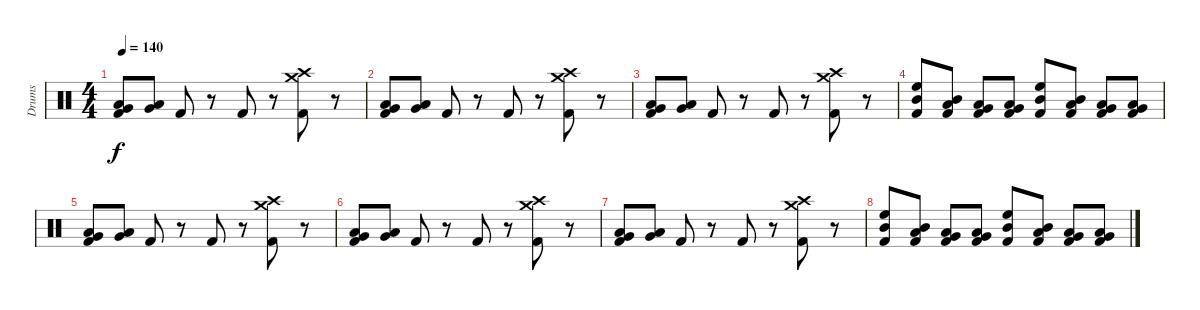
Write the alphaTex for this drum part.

\track ("Drums" "Drums") {instrument percussion}
\staff {score}
\articulation defaults
\ts (4 4)
\tempo 140
\clef neutral
\ks c
("Low Floor Tom (hit)" "Very Low Tom (hit)" "Kick (hit) 2").8{dy f} ("Low Floor Tom (hit)" "Very Low Tom (hit)").8 "Kick (hit) 2".8 r.8 "Kick (hit) 2".8 r.8 ("Crash high (hit)" "Crash medium (hit)" "Kick (hit) 2").8 r.8 |
("Low Floor Tom (hit)" "Very Low Tom (hit)" "Kick (hit) 2").8 ("Low Floor Tom (hit)" "Very Low Tom (hit)").8 "Kick (hit) 2".8 r.8 "Kick (hit) 2".8 r.8 ("Crash high (hit)" "Crash medium (hit)" "Kick (hit) 2").8 r.8 |
("Low Floor Tom (hit)" "Very Low Tom (hit)" "Kick (hit) 2").8 ("Low Floor Tom (hit)" "Very Low Tom (hit)").8 "Kick (hit) 2".8 r.8 "Kick (hit) 2".8 r.8 ("Crash high (hit)" "Crash medium (hit)" "Kick (hit) 2").8 r.8 |
("High Floor Tom (hit)" "Mid Tom (hit)" "Kick (hit) 2").8 ("Mid Tom (hit)" "Low Tom (hit)" "Kick (hit) 2").8 ("Low Tom (hit)" "Very Low Tom (hit)" "Kick (hit) 2").8 ("Very Low Tom (hit)" "Low Floor Tom (hit)" "Kick (hit) 2").8 ("High Floor Tom (hit)" "Mid Tom (hit)" "Kick (hit) 2").8 ("Mid Tom (hit)" "Low Tom (hit)" "Kick (hit) 2").8 ("Low Tom (hit)" "Very Low Tom (hit)" "Kick (hit) 2").8 ("Very Low Tom (hit)" "Low Floor Tom (hit)" "Kick (hit) 2").8 |
("Low Floor Tom (hit)" "Very Low Tom (hit)" "Kick (hit) 2").8 ("Low Floor Tom (hit)" "Very Low Tom (hit)").8 "Kick (hit) 2".8 r.8 "Kick (hit) 2".8 r.8 ("Crash high (hit)" "Crash medium (hit)" "Kick (hit) 2").8 r.8 |
("Low Floor Tom (hit)" "Very Low Tom (hit)" "Kick (hit) 2").8 ("Low Floor Tom (hit)" "Very Low Tom (hit)").8 "Kick (hit) 2".8 r.8 "Kick (hit) 2".8 r.8 ("Crash high (hit)" "Crash medium (hit)" "Kick (hit) 2").8 r.8 |
("Low Floor Tom (hit)" "Very Low Tom (hit)" "Kick (hit) 2").8 ("Low Floor Tom (hit)" "Very Low Tom (hit)").8 "Kick (hit) 2".8 r.8 "Kick (hit) 2".8 r.8 ("Crash high (hit)" "Crash medium (hit)" "Kick (hit) 2").8 r.8 |
("High Floor Tom (hit)" "Mid Tom (hit)" "Kick (hit) 2").8 ("Mid Tom (hit)" "Low Tom (hit)" "Kick (hit) 2").8 ("Low Tom (hit)" "Very Low Tom (hit)" "Kick (hit) 2").8 ("Very Low Tom (hit)" "Low Floor Tom (hit)" "Kick (hit) 2").8 ("High Floor Tom (hit)" "Mid Tom (hit)" "Kick (hit) 2").8 ("Mid Tom (hit)" "Low Tom (hit)" "Kick (hit) 2").8 ("Low Tom (hit)" "Very Low Tom (hit)" "Kick (hit) 2").8 ("Very Low Tom (hit)" "Low Floor Tom (hit)" "Kick (hit) 2").8
